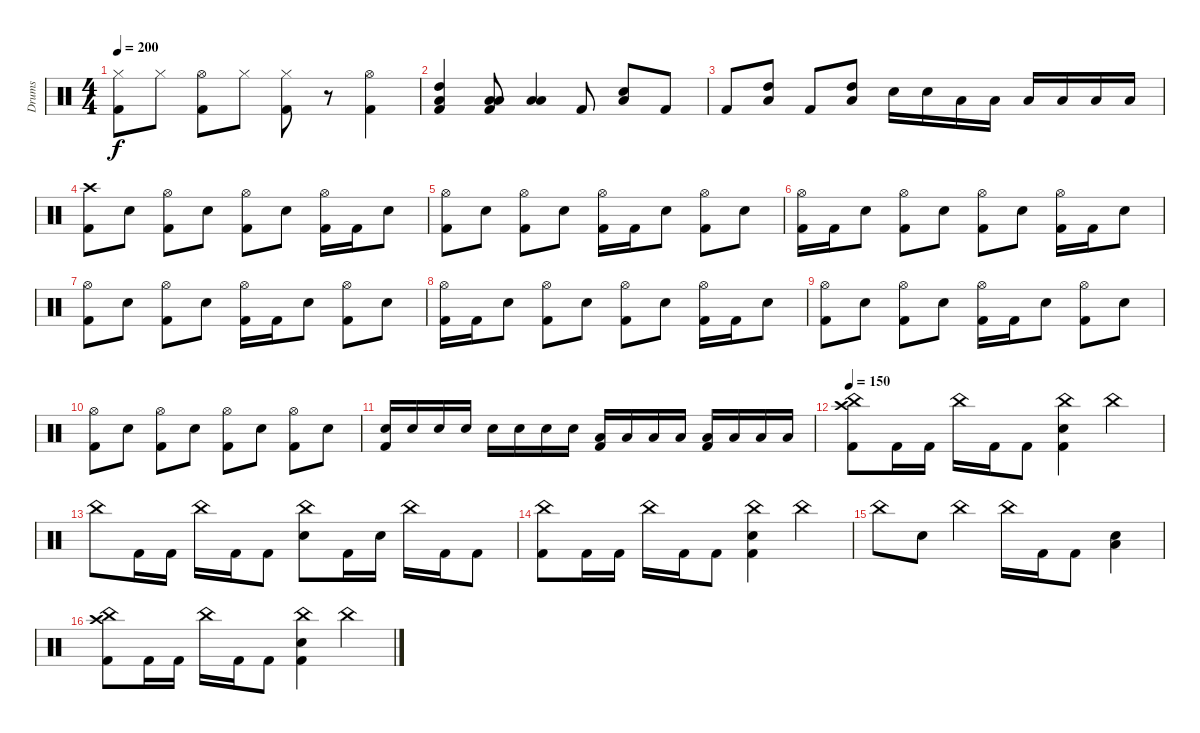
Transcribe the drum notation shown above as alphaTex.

\track ("Drums" "Drums") {instrument percussion}
\staff {score}
\articulation defaults
\ts (4 4)
\tempo 200
\clef neutral
\ks c
("Hi-Hat (closed)" "Kick (hit) 2").8{dy f} "Hi-Hat (closed)".8 ("Hi-Hat (open)" "Kick (hit) 2").8 "Hi-Hat (closed)".8 ("Hi-Hat (closed)" "Kick (hit) 2").8 r.8 ("Hi-Hat (open)" "Kick (hit) 2").4 |
("Low Tom (hit)" "High Tom (hit)" "Kick (hit) 2").4 ("Low Tom (hit)" "Low Floor Tom (hit)" "Kick (hit) 2").8 ("Low Tom (hit)" "Low Floor Tom (hit)").4 "Kick (hit) 2".8 ("Snare (hit) 2" "Low Tom (hit)").8 "Kick (hit) 2".8 |
"Kick (hit) 2".8 ("Low Tom (hit)" "High Tom (hit)").8 "Kick (hit) 2".8 ("Low Tom (hit)" "High Tom (hit)").8 "Snare (hit) 2".16 "Snare (hit) 2".16 "Low Tom (hit)".16 "Low Tom (hit)".16 "Low Floor Tom (hit)".16 "Low Floor Tom (hit)".16 "Low Floor Tom (hit)".16 "Low Floor Tom (hit)".16 |
("Crash high (hit)" "Kick (hit) 2").8 "Snare (hit) 2".8 ("Hi-Hat (open)" "Kick (hit) 2").8 "Snare (hit) 2".8 ("Hi-Hat (open)" "Kick (hit) 2").8 "Snare (hit) 2".8 ("Hi-Hat (open)" "Kick (hit) 2").16 "Kick (hit) 2".16 "Snare (hit) 2".8 |
("Hi-Hat (open)" "Kick (hit) 2").8 "Snare (hit) 2".8 ("Hi-Hat (open)" "Kick (hit) 2").8 "Snare (hit) 2".8 ("Hi-Hat (open)" "Kick (hit) 2").16 "Kick (hit) 2".16 "Snare (hit) 2".8 ("Hi-Hat (open)" "Kick (hit) 2").8 "Snare (hit) 2".8 |
("Hi-Hat (open)" "Kick (hit) 2").16 "Kick (hit) 2".16 "Snare (hit) 2".8 ("Hi-Hat (open)" "Kick (hit) 2").8 "Snare (hit) 2".8 ("Hi-Hat (open)" "Kick (hit) 2").8 "Snare (hit) 2".8 ("Hi-Hat (open)" "Kick (hit) 2").16 "Kick (hit) 2".16 "Snare (hit) 2".8 |
("Hi-Hat (open)" "Kick (hit) 2").8 "Snare (hit) 2".8 ("Hi-Hat (open)" "Kick (hit) 2").8 "Snare (hit) 2".8 ("Hi-Hat (open)" "Kick (hit) 2").16 "Kick (hit) 2".16 "Snare (hit) 2".8 ("Hi-Hat (open)" "Kick (hit) 2").8 "Snare (hit) 2".8 |
("Hi-Hat (open)" "Kick (hit) 2").16 "Kick (hit) 2".16 "Snare (hit) 2".8 ("Hi-Hat (open)" "Kick (hit) 2").8 "Snare (hit) 2".8 ("Hi-Hat (open)" "Kick (hit) 2").8 "Snare (hit) 2".8 ("Hi-Hat (open)" "Kick (hit) 2").16 "Kick (hit) 2".16 "Snare (hit) 2".8 |
("Hi-Hat (open)" "Kick (hit) 2").8 "Snare (hit) 2".8 ("Hi-Hat (open)" "Kick (hit) 2").8 "Snare (hit) 2".8 ("Hi-Hat (open)" "Kick (hit) 2").16 "Kick (hit) 2".16 "Snare (hit) 2".8 ("Hi-Hat (open)" "Kick (hit) 2").8 "Snare (hit) 2".8 |
("Hi-Hat (open)" "Kick (hit) 2").8 "Snare (hit) 2".8 ("Hi-Hat (open)" "Kick (hit) 2").8 "Snare (hit) 2".8 ("Hi-Hat (open)" "Kick (hit) 2").8 "Snare (hit) 2".8 ("Hi-Hat (open)" "Kick (hit) 2").8 "Snare (hit) 2".8 |
("Snare (hit) 2" "Kick (hit) 2").16 "Snare (hit) 2".16 "Snare (hit) 2".16 "Snare (hit) 2".16 "Snare (hit) 2".16 "Snare (hit) 2".16 "Snare (hit) 2".16 "Snare (hit) 2".16 ("Low Tom (hit)" "Kick (hit) 2").16 "Low Tom (hit)".16 "Low Tom (hit)".16 "Low Tom (hit)".16 ("Low Floor Tom (hit)" "Kick (hit) 2").16 "Low Floor Tom (hit)".16 "Low Floor Tom (hit)".16 "Low Floor Tom (hit)".16 |
\tempo 150
("Crash high (hit)" "China (hit)" "Kick (hit) 2").8 "Kick (hit) 2".16 "Kick (hit) 2".16 "China (hit)".16 "Kick (hit) 2".16 "Kick (hit) 2".8 ("China (hit)" "Snare (hit) 2" "Kick (hit) 2").4 "China (hit)".4 |
"China (hit)".8 "Kick (hit) 2".16 "Kick (hit) 2".16 "China (hit)".16 "Kick (hit) 2".16 "Kick (hit) 2".8 ("China (hit)" "Snare (hit) 2").8 "Kick (hit) 2".16 "Snare (hit)".16 "China (hit)".16 "Kick (hit) 2".16 "Kick (hit) 2".8 |
("China (hit)" "Kick (hit) 2").8 "Kick (hit) 2".16 "Kick (hit) 2".16 "China (hit)".16 "Kick (hit) 2".16 "Kick (hit) 2".8 ("China (hit)" "Snare (hit) 2" "Kick (hit) 2").4 "China (hit)".4 |
"China (hit)".8 "Snare (hit) 2".8 "China (hit)".4 "China (hit)".16 "Kick (hit) 2".16 "Kick (hit) 2".8 ("Snare (hit) 2" "Low Floor Tom (hit)").4 |
("Crash high (hit)" "China (hit)" "Kick (hit) 2").8 "Kick (hit) 2".16 "Kick (hit) 2".16 "China (hit)".16 "Kick (hit) 2".16 "Kick (hit) 2".8 ("China (hit)" "Snare (hit) 2" "Kick (hit) 2").4 "China (hit)".4
